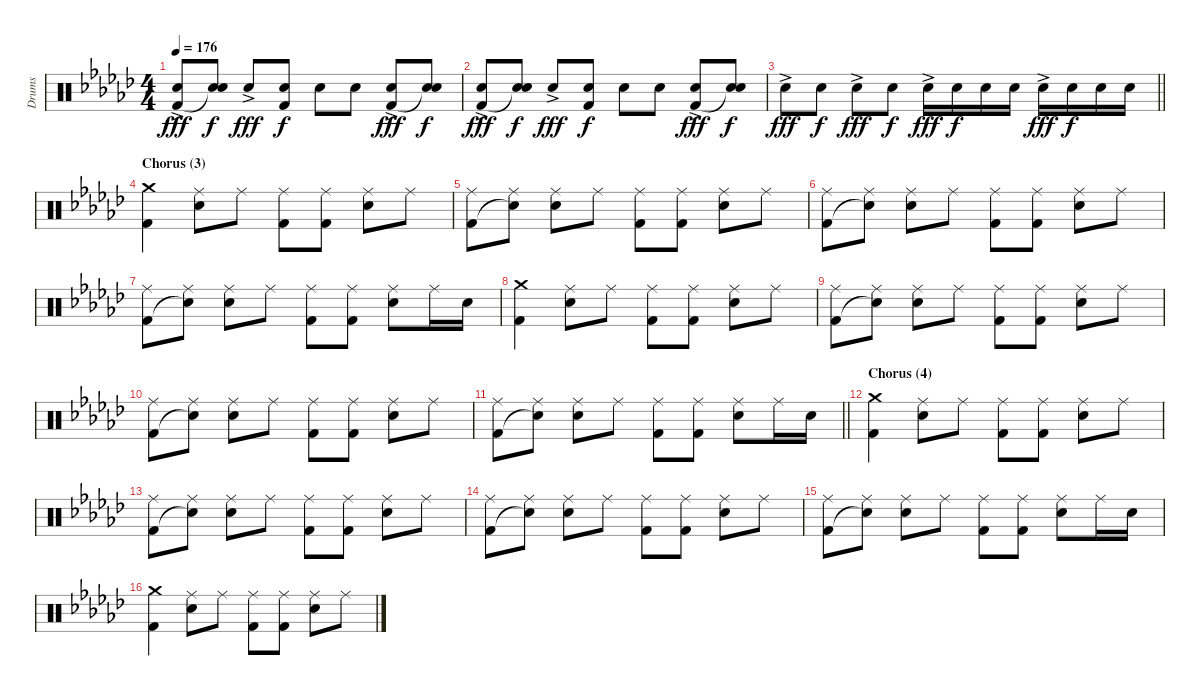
\track ("Drums" "Drums") {instrument percussion}
\staff {score}
\articulation defaults
\ts (4 4)
\tempo 176
\clef neutral
\ks ebminor
("Electric Snare (hit)"{ac} "Kick (hit) 2").8{dy fff} ("Electric Snare (hit)" "Snare (hit)"{t}).8{dy f} "Electric Snare (hit)"{ac}.8{dy fff} ("Electric Snare (hit)" "Kick (hit) 2").8{dy f} "Electric Snare (hit)".8 "Electric Snare (hit)".8 ("Electric Snare (hit)"{ac} "Kick (hit) 2").8{dy fff} ("Electric Snare (hit)" "Snare (hit)"{t}).8{dy f} |
("Electric Snare (hit)"{ac} "Kick (hit) 2").8{dy fff} ("Electric Snare (hit)" "Snare (hit)"{t}).8{dy f} "Electric Snare (hit)"{ac}.8{dy fff} ("Electric Snare (hit)" "Kick (hit) 2").8{dy f} "Electric Snare (hit)".8 "Electric Snare (hit)".8 ("Electric Snare (hit)"{ac} "Kick (hit) 2").8{dy fff} ("Electric Snare (hit)" "Snare (hit)"{t}).8{dy f} |
\barLineRight lightlight "Electric Snare (hit)"{ac}.8{dy fff} "Electric Snare (hit)".8{dy f} "Electric Snare (hit)"{ac}.8{dy fff} "Electric Snare (hit)".8{dy f} "Electric Snare (hit)"{ac}.16{dy fff} "Electric Snare (hit)".16{dy f} "Electric Snare (hit)".16 "Electric Snare (hit)".16 "Electric Snare (hit)"{ac}.16{dy fff} "Electric Snare (hit)".16{dy f} "Electric Snare (hit)".16 "Electric Snare (hit)".16
|
\section ("" "Chorus (3)")
("Crash medium (hit)" "Kick (hit) 2").4 ("Ride (middle)" "Electric Snare (hit)").8 "Ride (middle)".8 ("Ride (middle)" "Kick (hit) 2").8 ("Ride (middle)" "Kick (hit) 2").8 ("Ride (middle)" "Electric Snare (hit)").8 "Ride (middle)".8 |
("Ride (middle)" "Kick (hit) 2").8 ("Ride (middle)" "Snare (hit)"{t}).8 ("Ride (middle)" "Electric Snare (hit)").8 "Ride (middle)".8 ("Ride (middle)" "Kick (hit) 2").8 ("Ride (middle)" "Kick (hit) 2").8 ("Ride (middle)" "Electric Snare (hit)").8 "Ride (middle)".8 |
("Ride (middle)" "Kick (hit) 2").8 ("Ride (middle)" "Snare (hit)"{t}).8 ("Ride (middle)" "Electric Snare (hit)").8 "Ride (middle)".8 ("Ride (middle)" "Kick (hit) 2").8 ("Ride (middle)" "Kick (hit) 2").8 ("Ride (middle)" "Electric Snare (hit)").8 "Ride (middle)".8 |
("Ride (middle)" "Kick (hit) 2").8 ("Ride (middle)" "Snare (hit)"{t}).8 ("Ride (middle)" "Electric Snare (hit)").8 "Ride (middle)".8 ("Ride (middle)" "Kick (hit) 2").8 ("Ride (middle)" "Kick (hit) 2").8 ("Ride (middle)" "Electric Snare (hit)").8 "Ride (middle)".16 "Electric Snare (hit)".16 |
("Crash medium (hit)" "Kick (hit) 2").4 ("Ride (middle)" "Electric Snare (hit)").8 "Ride (middle)".8 ("Ride (middle)" "Kick (hit) 2").8 ("Ride (middle)" "Kick (hit) 2").8 ("Ride (middle)" "Electric Snare (hit)").8 "Ride (middle)".8 |
("Ride (middle)" "Kick (hit) 2").8 ("Ride (middle)" "Snare (hit)"{t}).8 ("Ride (middle)" "Electric Snare (hit)").8 "Ride (middle)".8 ("Ride (middle)" "Kick (hit) 2").8 ("Ride (middle)" "Kick (hit) 2").8 ("Ride (middle)" "Electric Snare (hit)").8 "Ride (middle)".8 |
("Ride (middle)" "Kick (hit) 2").8 ("Ride (middle)" "Snare (hit)"{t}).8 ("Ride (middle)" "Electric Snare (hit)").8 "Ride (middle)".8 ("Ride (middle)" "Kick (hit) 2").8 ("Ride (middle)" "Kick (hit) 2").8 ("Ride (middle)" "Electric Snare (hit)").8 "Ride (middle)".8 |
\barLineRight lightlight
("Ride (middle)" "Kick (hit) 2").8 ("Ride (middle)" "Snare (hit)"{t}).8 ("Ride (middle)" "Electric Snare (hit)").8 "Ride (middle)".8 ("Ride (middle)" "Kick (hit) 2").8 ("Ride (middle)" "Kick (hit) 2").8 ("Ride (middle)" "Electric Snare (hit)").8 "Ride (middle)".16 "Electric Snare (hit)".16 |
\section ("" "Chorus (4)")
("Crash medium (hit)" "Kick (hit) 2").4 ("Ride (middle)" "Electric Snare (hit)").8 "Ride (middle)".8 ("Ride (middle)" "Kick (hit) 2").8 ("Ride (middle)" "Kick (hit) 2").8 ("Ride (middle)" "Electric Snare (hit)").8 "Ride (middle)".8 |
("Ride (middle)" "Kick (hit) 2").8 ("Ride (middle)" "Snare (hit)"{t}).8 ("Ride (middle)" "Electric Snare (hit)").8 "Ride (middle)".8 ("Ride (middle)" "Kick (hit) 2").8 ("Ride (middle)" "Kick (hit) 2").8 ("Ride (middle)" "Electric Snare (hit)").8 "Ride (middle)".8 |
("Ride (middle)" "Kick (hit) 2").8 ("Ride (middle)" "Snare (hit)"{t}).8 ("Ride (middle)" "Electric Snare (hit)").8 "Ride (middle)".8 ("Ride (middle)" "Kick (hit) 2").8 ("Ride (middle)" "Kick (hit) 2").8 ("Ride (middle)" "Electric Snare (hit)").8 "Ride (middle)".8 |
("Ride (middle)" "Kick (hit) 2").8 ("Ride (middle)" "Snare (hit)"{t}).8 ("Ride (middle)" "Electric Snare (hit)").8 "Ride (middle)".8 ("Ride (middle)" "Kick (hit) 2").8 ("Ride (middle)" "Kick (hit) 2").8 ("Ride (middle)" "Electric Snare (hit)").8 "Ride (middle)".16 "Electric Snare (hit)".16 |
("Crash medium (hit)" "Kick (hit) 2").4 ("Ride (middle)" "Electric Snare (hit)").8 "Ride (middle)".8 ("Ride (middle)" "Kick (hit) 2").8 ("Ride (middle)" "Kick (hit) 2").8 ("Ride (middle)" "Electric Snare (hit)").8 "Ride (middle)".8
